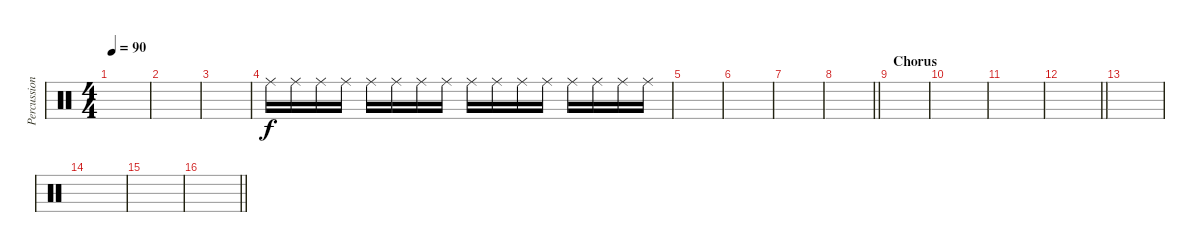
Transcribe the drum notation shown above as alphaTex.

\track ("Percussion (Tom Decker)" "Percussion") {instrument percussion}
\staff {score}
\articulation defaults
\ts (4 4)
\tempo 90
\clef neutral
\ks c
|
|
|
"Ride (middle)".16 "Ride (middle)".16 "Ride (middle)".16 "Ride (middle)".16 "Ride (middle)".16 "Ride (middle)".16 "Ride (middle)".16 "Ride (middle)".16 "Ride (middle)".16 "Ride (middle)".16 "Ride (middle)".16 "Ride (middle)".16 "Ride (middle)".16 "Ride (middle)".16 "Ride (middle)".16 "Ride (middle)".16 |
|
|
|
\barLineRight lightlight
|
\section ("" "Chorus")
|
|
|
\barLineRight lightlight
|
|
|
|
\barLineRight lightlight
